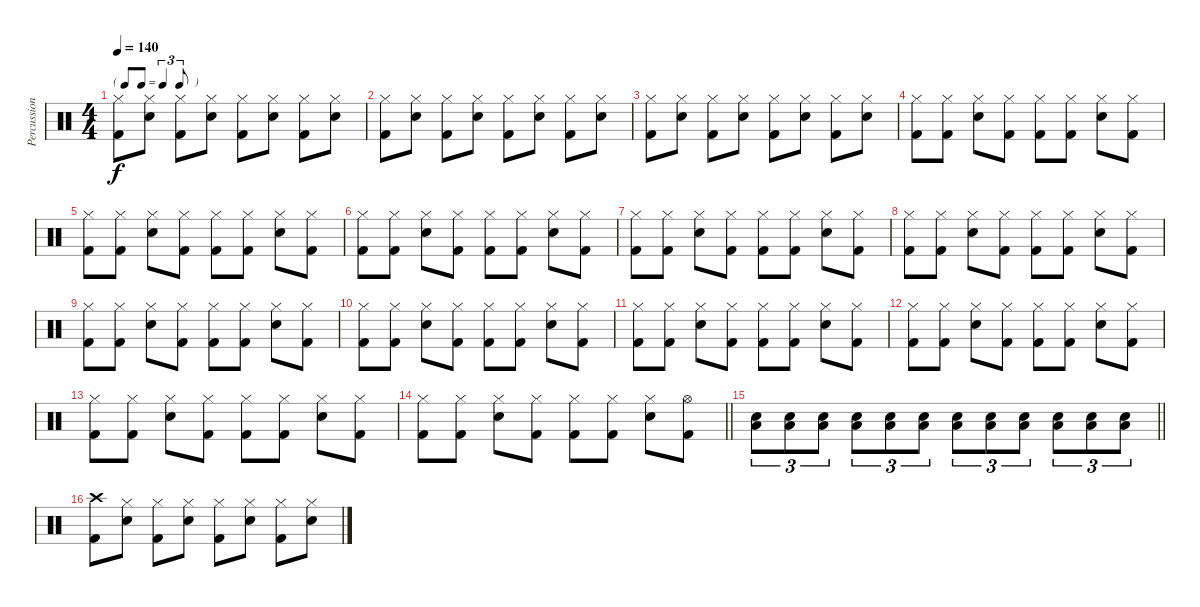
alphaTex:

\track ("Percussion" "Percussion") {instrument percussion}
\staff {score}
\articulation defaults
\ts (4 4)
\tf triplet8th
\tempo 140
\clef neutral
\ks c
("Hi-Hat (closed)" "Kick (hit) 2").8{dy f} ("Hi-Hat (closed)" "Snare (hit) 2").8 ("Hi-Hat (closed)" "Kick (hit) 2").8 ("Hi-Hat (closed)" "Snare (hit) 2").8 ("Hi-Hat (closed)" "Kick (hit) 2").8 ("Hi-Hat (closed)" "Snare (hit) 2").8 ("Hi-Hat (closed)" "Kick (hit) 2").8 ("Hi-Hat (closed)" "Snare (hit) 2").8 |
("Hi-Hat (closed)" "Kick (hit) 2").8 ("Hi-Hat (closed)" "Snare (hit) 2").8 ("Hi-Hat (closed)" "Kick (hit) 2").8 ("Hi-Hat (closed)" "Snare (hit) 2").8 ("Hi-Hat (closed)" "Kick (hit) 2").8 ("Hi-Hat (closed)" "Snare (hit) 2").8 ("Hi-Hat (closed)" "Kick (hit) 2").8 ("Hi-Hat (closed)" "Snare (hit) 2").8 |
("Hi-Hat (closed)" "Kick (hit) 2").8 ("Hi-Hat (closed)" "Snare (hit) 2").8 ("Hi-Hat (closed)" "Kick (hit) 2").8 ("Hi-Hat (closed)" "Snare (hit) 2").8 ("Hi-Hat (closed)" "Kick (hit) 2").8 ("Hi-Hat (closed)" "Snare (hit) 2").8 ("Hi-Hat (closed)" "Kick (hit) 2").8 ("Hi-Hat (closed)" "Snare (hit) 2").8 |
("Hi-Hat (closed)" "Kick (hit) 2").8 ("Hi-Hat (closed)" "Kick (hit) 2").8 ("Hi-Hat (closed)" "Snare (hit) 2").8 ("Hi-Hat (closed)" "Kick (hit) 2").8 ("Hi-Hat (closed)" "Kick (hit) 2").8 ("Hi-Hat (closed)" "Kick (hit) 2").8 ("Hi-Hat (closed)" "Snare (hit) 2").8 ("Hi-Hat (closed)" "Kick (hit) 2").8 |
("Hi-Hat (closed)" "Kick (hit) 2").8 ("Hi-Hat (closed)" "Kick (hit) 2").8 ("Hi-Hat (closed)" "Snare (hit) 2").8 ("Hi-Hat (closed)" "Kick (hit) 2").8 ("Hi-Hat (closed)" "Kick (hit) 2").8 ("Hi-Hat (closed)" "Kick (hit) 2").8 ("Hi-Hat (closed)" "Snare (hit) 2").8 ("Hi-Hat (closed)" "Kick (hit) 2").8 |
("Hi-Hat (closed)" "Kick (hit) 2").8 ("Hi-Hat (closed)" "Kick (hit) 2").8 ("Hi-Hat (closed)" "Snare (hit) 2").8 ("Hi-Hat (closed)" "Kick (hit) 2").8 ("Hi-Hat (closed)" "Kick (hit) 2").8 ("Hi-Hat (closed)" "Kick (hit) 2").8 ("Hi-Hat (closed)" "Snare (hit) 2").8 ("Hi-Hat (closed)" "Kick (hit) 2").8 |
("Hi-Hat (closed)" "Kick (hit) 2").8 ("Hi-Hat (closed)" "Kick (hit) 2").8 ("Hi-Hat (closed)" "Snare (hit) 2").8 ("Hi-Hat (closed)" "Kick (hit) 2").8 ("Hi-Hat (closed)" "Kick (hit) 2").8 ("Hi-Hat (closed)" "Kick (hit) 2").8 ("Hi-Hat (closed)" "Snare (hit) 2").8 ("Hi-Hat (closed)" "Kick (hit) 2").8 |
("Hi-Hat (closed)" "Kick (hit) 2").8 ("Hi-Hat (closed)" "Kick (hit) 2").8 ("Hi-Hat (closed)" "Snare (hit) 2").8 ("Hi-Hat (closed)" "Kick (hit) 2").8 ("Hi-Hat (closed)" "Kick (hit) 2").8 ("Hi-Hat (closed)" "Kick (hit) 2").8 ("Hi-Hat (closed)" "Snare (hit) 2").8 ("Hi-Hat (closed)" "Kick (hit) 2").8 |
("Hi-Hat (closed)" "Kick (hit) 2").8 ("Hi-Hat (closed)" "Kick (hit) 2").8 ("Hi-Hat (closed)" "Snare (hit) 2").8 ("Hi-Hat (closed)" "Kick (hit) 2").8 ("Hi-Hat (closed)" "Kick (hit) 2").8 ("Hi-Hat (closed)" "Kick (hit) 2").8 ("Hi-Hat (closed)" "Snare (hit) 2").8 ("Hi-Hat (closed)" "Kick (hit) 2").8 |
("Hi-Hat (closed)" "Kick (hit) 2").8 ("Hi-Hat (closed)" "Kick (hit) 2").8 ("Hi-Hat (closed)" "Snare (hit) 2").8 ("Hi-Hat (closed)" "Kick (hit) 2").8 ("Hi-Hat (closed)" "Kick (hit) 2").8 ("Hi-Hat (closed)" "Kick (hit) 2").8 ("Hi-Hat (closed)" "Snare (hit) 2").8 ("Hi-Hat (closed)" "Kick (hit) 2").8 |
("Hi-Hat (closed)" "Kick (hit) 2").8 ("Hi-Hat (closed)" "Kick (hit) 2").8 ("Hi-Hat (closed)" "Snare (hit) 2").8 ("Hi-Hat (closed)" "Kick (hit) 2").8 ("Hi-Hat (closed)" "Kick (hit) 2").8 ("Hi-Hat (closed)" "Kick (hit) 2").8 ("Hi-Hat (closed)" "Snare (hit) 2").8 ("Hi-Hat (closed)" "Kick (hit) 2").8 |
("Hi-Hat (closed)" "Kick (hit) 2").8 ("Hi-Hat (closed)" "Kick (hit) 2").8 ("Hi-Hat (closed)" "Snare (hit) 2").8 ("Hi-Hat (closed)" "Kick (hit) 2").8 ("Hi-Hat (closed)" "Kick (hit) 2").8 ("Hi-Hat (closed)" "Kick (hit) 2").8 ("Hi-Hat (closed)" "Snare (hit) 2").8 ("Hi-Hat (closed)" "Kick (hit) 2").8 |
("Hi-Hat (closed)" "Kick (hit) 2").8 ("Hi-Hat (closed)" "Kick (hit) 2").8 ("Hi-Hat (closed)" "Snare (hit) 2").8 ("Hi-Hat (closed)" "Kick (hit) 2").8 ("Hi-Hat (closed)" "Kick (hit) 2").8 ("Hi-Hat (closed)" "Kick (hit) 2").8 ("Hi-Hat (closed)" "Snare (hit) 2").8 ("Hi-Hat (closed)" "Kick (hit) 2").8 |
\barLineRight lightlight
("Hi-Hat (closed)" "Kick (hit) 2").8 ("Hi-Hat (closed)" "Kick (hit) 2").8 ("Hi-Hat (closed)" "Snare (hit) 2").8 ("Hi-Hat (closed)" "Kick (hit) 2").8 ("Hi-Hat (closed)" "Kick (hit) 2").8 ("Hi-Hat (closed)" "Kick (hit) 2").8 ("Hi-Hat (closed)" "Snare (hit) 2").8 ("Hi-Hat (open)" "Kick (hit) 2").8 |
\barLineRight lightlight
("Low Floor Tom (hit)" "Snare (hit) 2").8{tu (3 2)} ("Low Floor Tom (hit)" "Snare (hit) 2").8{tu (3 2)} ("Low Floor Tom (hit)" "Snare (hit) 2").8{tu (3 2)} ("Low Floor Tom (hit)" "Snare (hit) 2").8{tu (3 2)} ("Low Floor Tom (hit)" "Snare (hit) 2").8{tu (3 2)} ("Low Floor Tom (hit)" "Snare (hit) 2").8{tu (3 2)} ("Low Floor Tom (hit)" "Snare (hit) 2").8{tu (3 2)} ("Low Floor Tom (hit)" "Snare (hit) 2").8{tu (3 2)} ("Low Floor Tom (hit)" "Snare (hit) 2").8{tu (3 2)} ("Low Floor Tom (hit)" "Snare (hit) 2").8{tu (3 2)} ("Low Floor Tom (hit)" "Snare (hit) 2").8{tu (3 2)} ("Low Floor Tom (hit)" "Snare (hit) 2").8{tu (3 2)} |
("Crash high (hit)" "Kick (hit) 2").8 ("Hi-Hat (closed)" "Snare (hit) 2").8 ("Hi-Hat (closed)" "Kick (hit) 2").8 ("Hi-Hat (closed)" "Snare (hit) 2").8 ("Hi-Hat (closed)" "Kick (hit) 2").8 ("Hi-Hat (closed)" "Snare (hit) 2").8 ("Hi-Hat (closed)" "Kick (hit) 2").8 ("Hi-Hat (closed)" "Snare (hit) 2").8
